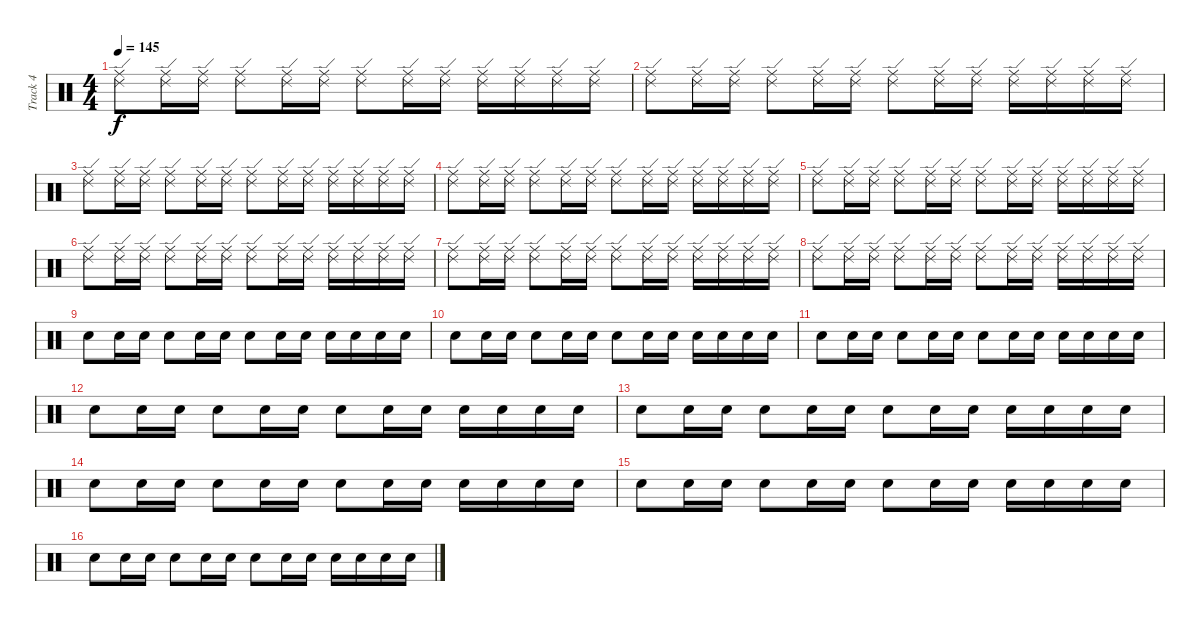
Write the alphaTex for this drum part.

\track ("Track 4" "Track 4") {instrument percussion}
\staff {score}
\articulation defaults
\ts (4 4)
\tempo 145
\clef neutral
\ks c
("Ride (middle)" "Ride (edge) 2").8{dy f} ("Ride (middle)" "Ride (edge) 2").16 ("Ride (middle)" "Ride (edge) 2").16 ("Ride (middle)" "Ride (edge) 2").8 ("Ride (middle)" "Ride (edge) 2").16 ("Ride (middle)" "Ride (edge) 2").16 ("Ride (middle)" "Ride (edge) 2").8 ("Ride (middle)" "Ride (edge) 2").16 ("Ride (middle)" "Ride (edge) 2").16 ("Ride (middle)" "Ride (edge) 2").16 ("Ride (middle)" "Ride (edge) 2").16 ("Ride (middle)" "Ride (edge) 2").16 ("Ride (middle)" "Ride (edge) 2").16 |
("Ride (middle)" "Ride (edge) 2").8 ("Ride (middle)" "Ride (edge) 2").16 ("Ride (middle)" "Ride (edge) 2").16 ("Ride (middle)" "Ride (edge) 2").8 ("Ride (middle)" "Ride (edge) 2").16 ("Ride (middle)" "Ride (edge) 2").16 ("Ride (middle)" "Ride (edge) 2").8 ("Ride (middle)" "Ride (edge) 2").16 ("Ride (middle)" "Ride (edge) 2").16 ("Ride (middle)" "Ride (edge) 2").16 ("Ride (middle)" "Ride (edge) 2").16 ("Ride (middle)" "Ride (edge) 2").16 ("Ride (middle)" "Ride (edge) 2").16 |
("Ride (middle)" "Ride (edge) 2").8 ("Ride (middle)" "Ride (edge) 2").16 ("Ride (middle)" "Ride (edge) 2").16 ("Ride (middle)" "Ride (edge) 2").8 ("Ride (middle)" "Ride (edge) 2").16 ("Ride (middle)" "Ride (edge) 2").16 ("Ride (middle)" "Ride (edge) 2").8 ("Ride (middle)" "Ride (edge) 2").16 ("Ride (middle)" "Ride (edge) 2").16 ("Ride (middle)" "Ride (edge) 2").16 ("Ride (middle)" "Ride (edge) 2").16 ("Ride (middle)" "Ride (edge) 2").16 ("Ride (middle)" "Ride (edge) 2").16 |
("Ride (middle)" "Ride (edge) 2").8 ("Ride (middle)" "Ride (edge) 2").16 ("Ride (middle)" "Ride (edge) 2").16 ("Ride (middle)" "Ride (edge) 2").8 ("Ride (middle)" "Ride (edge) 2").16 ("Ride (middle)" "Ride (edge) 2").16 ("Ride (middle)" "Ride (edge) 2").8 ("Ride (middle)" "Ride (edge) 2").16 ("Ride (middle)" "Ride (edge) 2").16 ("Ride (middle)" "Ride (edge) 2").16 ("Ride (middle)" "Ride (edge) 2").16 ("Ride (middle)" "Ride (edge) 2").16 ("Ride (middle)" "Ride (edge) 2").16 |
("Ride (middle)" "Ride (edge) 2").8 ("Ride (middle)" "Ride (edge) 2").16 ("Ride (middle)" "Ride (edge) 2").16 ("Ride (middle)" "Ride (edge) 2").8 ("Ride (middle)" "Ride (edge) 2").16 ("Ride (middle)" "Ride (edge) 2").16 ("Ride (middle)" "Ride (edge) 2").8 ("Ride (middle)" "Ride (edge) 2").16 ("Ride (middle)" "Ride (edge) 2").16 ("Ride (middle)" "Ride (edge) 2").16 ("Ride (middle)" "Ride (edge) 2").16 ("Ride (middle)" "Ride (edge) 2").16 ("Ride (middle)" "Ride (edge) 2").16 |
("Ride (middle)" "Ride (edge) 2").8 ("Ride (middle)" "Ride (edge) 2").16 ("Ride (middle)" "Ride (edge) 2").16 ("Ride (middle)" "Ride (edge) 2").8 ("Ride (middle)" "Ride (edge) 2").16 ("Ride (middle)" "Ride (edge) 2").16 ("Ride (middle)" "Ride (edge) 2").8 ("Ride (middle)" "Ride (edge) 2").16 ("Ride (middle)" "Ride (edge) 2").16 ("Ride (middle)" "Ride (edge) 2").16 ("Ride (middle)" "Ride (edge) 2").16 ("Ride (middle)" "Ride (edge) 2").16 ("Ride (middle)" "Ride (edge) 2").16 |
("Ride (middle)" "Ride (edge) 2").8 ("Ride (middle)" "Ride (edge) 2").16 ("Ride (middle)" "Ride (edge) 2").16 ("Ride (middle)" "Ride (edge) 2").8 ("Ride (middle)" "Ride (edge) 2").16 ("Ride (middle)" "Ride (edge) 2").16 ("Ride (middle)" "Ride (edge) 2").8 ("Ride (middle)" "Ride (edge) 2").16 ("Ride (middle)" "Ride (edge) 2").16 ("Ride (middle)" "Ride (edge) 2").16 ("Ride (middle)" "Ride (edge) 2").16 ("Ride (middle)" "Ride (edge) 2").16 ("Ride (middle)" "Ride (edge) 2").16 |
("Ride (middle)" "Ride (edge) 2").8 ("Ride (middle)" "Ride (edge) 2").16 ("Ride (middle)" "Ride (edge) 2").16 ("Ride (middle)" "Ride (edge) 2").8 ("Ride (middle)" "Ride (edge) 2").16 ("Ride (middle)" "Ride (edge) 2").16 ("Ride (middle)" "Ride (edge) 2").8 ("Ride (middle)" "Ride (edge) 2").16 ("Ride (middle)" "Ride (edge) 2").16 ("Ride (middle)" "Ride (edge) 2").16 ("Ride (middle)" "Ride (edge) 2").16 ("Ride (middle)" "Ride (edge) 2").16 ("Ride (middle)" "Ride (edge) 2").16 |
"Snare (hit) 2".8 "Snare (hit) 2".16 "Snare (hit) 2".16 "Snare (hit) 2".8 "Snare (hit) 2".16 "Snare (hit) 2".16 "Snare (hit) 2".8 "Snare (hit) 2".16 "Snare (hit) 2".16 "Snare (hit) 2".16 "Snare (hit) 2".16 "Snare (hit) 2".16 "Snare (hit) 2".16 |
"Snare (hit) 2".8 "Snare (hit) 2".16 "Snare (hit) 2".16 "Snare (hit) 2".8 "Snare (hit) 2".16 "Snare (hit) 2".16 "Snare (hit) 2".8 "Snare (hit) 2".16 "Snare (hit) 2".16 "Snare (hit) 2".16 "Snare (hit) 2".16 "Snare (hit) 2".16 "Snare (hit) 2".16 |
"Snare (hit) 2".8 "Snare (hit) 2".16 "Snare (hit) 2".16 "Snare (hit) 2".8 "Snare (hit) 2".16 "Snare (hit) 2".16 "Snare (hit) 2".8 "Snare (hit) 2".16 "Snare (hit) 2".16 "Snare (hit) 2".16 "Snare (hit) 2".16 "Snare (hit) 2".16 "Snare (hit) 2".16 |
"Snare (hit) 2".8 "Snare (hit) 2".16 "Snare (hit) 2".16 "Snare (hit) 2".8 "Snare (hit) 2".16 "Snare (hit) 2".16 "Snare (hit) 2".8 "Snare (hit) 2".16 "Snare (hit) 2".16 "Snare (hit) 2".16 "Snare (hit) 2".16 "Snare (hit) 2".16 "Snare (hit) 2".16 |
"Snare (hit) 2".8 "Snare (hit) 2".16 "Snare (hit) 2".16 "Snare (hit) 2".8 "Snare (hit) 2".16 "Snare (hit) 2".16 "Snare (hit) 2".8 "Snare (hit) 2".16 "Snare (hit) 2".16 "Snare (hit) 2".16 "Snare (hit) 2".16 "Snare (hit) 2".16 "Snare (hit) 2".16 |
"Snare (hit) 2".8 "Snare (hit) 2".16 "Snare (hit) 2".16 "Snare (hit) 2".8 "Snare (hit) 2".16 "Snare (hit) 2".16 "Snare (hit) 2".8 "Snare (hit) 2".16 "Snare (hit) 2".16 "Snare (hit) 2".16 "Snare (hit) 2".16 "Snare (hit) 2".16 "Snare (hit) 2".16 |
"Snare (hit) 2".8 "Snare (hit) 2".16 "Snare (hit) 2".16 "Snare (hit) 2".8 "Snare (hit) 2".16 "Snare (hit) 2".16 "Snare (hit) 2".8 "Snare (hit) 2".16 "Snare (hit) 2".16 "Snare (hit) 2".16 "Snare (hit) 2".16 "Snare (hit) 2".16 "Snare (hit) 2".16 |
"Snare (hit) 2".8 "Snare (hit) 2".16 "Snare (hit) 2".16 "Snare (hit) 2".8 "Snare (hit) 2".16 "Snare (hit) 2".16 "Snare (hit) 2".8 "Snare (hit) 2".16 "Snare (hit) 2".16 "Snare (hit) 2".16 "Snare (hit) 2".16 "Snare (hit) 2".16 "Snare (hit) 2".16
